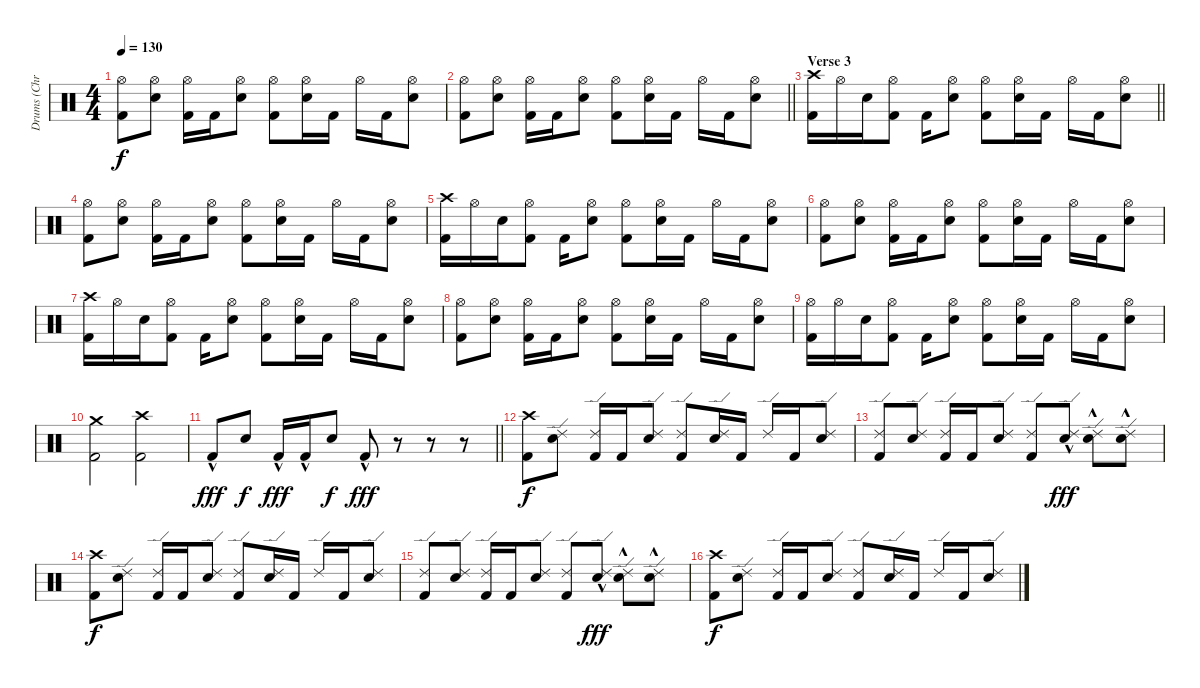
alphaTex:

\track ("Drums (Chris Greer)" "Drums (Chr") {instrument percussion}
\staff {score}
\articulation defaults
\ts (4 4)
\tempo 130
\clef neutral
\ks c
("Hi-Hat (open)" "Kick (hit) 2").8{dy f} ("Hi-Hat (open)" "Electric Snare (hit)").8 ("Hi-Hat (open)" "Kick (hit) 2").16 "Kick (hit) 2".16 ("Hi-Hat (open)" "Electric Snare (hit)").8 ("Hi-Hat (open)" "Kick (hit) 2").8 ("Hi-Hat (open)" "Electric Snare (hit)").16 "Kick (hit) 2".16 "Hi-Hat (open)".16 "Kick (hit) 2".16 ("Hi-Hat (open)" "Electric Snare (hit)").8 |
\barLineRight lightlight
("Hi-Hat (open)" "Kick (hit) 2").8 ("Hi-Hat (open)" "Electric Snare (hit)").8 ("Hi-Hat (open)" "Kick (hit) 2").16 "Kick (hit) 2".16 ("Hi-Hat (open)" "Electric Snare (hit)").8 ("Hi-Hat (open)" "Kick (hit) 2").8 ("Hi-Hat (open)" "Electric Snare (hit)").16 "Kick (hit) 2".16 "Hi-Hat (open)".16 "Kick (hit) 2".16 ("Hi-Hat (open)" "Electric Snare (hit)").8 |
\section ("" "Verse 3")
\barLineRight lightlight
("Crash high (hit)" "Kick (hit) 2").16 "Hi-Hat (open)".16 "Electric Snare (hit)".16 ("Hi-Hat (open)" "Kick (hit) 2").8 "Kick (hit) 2".16 ("Hi-Hat (open)" "Electric Snare (hit)").8 ("Hi-Hat (open)" "Kick (hit) 2").8 ("Hi-Hat (open)" "Electric Snare (hit)").16 "Kick (hit) 2".16 "Hi-Hat (open)".16 "Kick (hit) 2".16 ("Hi-Hat (open)" "Electric Snare (hit)").8 |
("Hi-Hat (open)" "Kick (hit) 2").8 ("Hi-Hat (open)" "Electric Snare (hit)").8 ("Hi-Hat (open)" "Kick (hit) 2").16 "Kick (hit) 2".16 ("Hi-Hat (open)" "Electric Snare (hit)").8 ("Hi-Hat (open)" "Kick (hit) 2").8 ("Hi-Hat (open)" "Electric Snare (hit)").16 "Kick (hit) 2".16 "Hi-Hat (open)".16 "Kick (hit) 2".16 ("Hi-Hat (open)" "Electric Snare (hit)").8 |
("Crash high (hit)" "Kick (hit) 2").16 "Hi-Hat (open)".16 "Electric Snare (hit)".16 ("Hi-Hat (open)" "Kick (hit) 2").8 "Kick (hit) 2".16 ("Hi-Hat (open)" "Electric Snare (hit)").8 ("Hi-Hat (open)" "Kick (hit) 2").8 ("Hi-Hat (open)" "Electric Snare (hit)").16 "Kick (hit) 2".16 "Hi-Hat (open)".16 "Kick (hit) 2".16 ("Hi-Hat (open)" "Electric Snare (hit)").8 |
("Hi-Hat (open)" "Kick (hit) 2").8 ("Hi-Hat (open)" "Electric Snare (hit)").8 ("Hi-Hat (open)" "Kick (hit) 2").16 "Kick (hit) 2".16 ("Hi-Hat (open)" "Electric Snare (hit)").8 ("Hi-Hat (open)" "Kick (hit) 2").8 ("Hi-Hat (open)" "Electric Snare (hit)").16 "Kick (hit) 2".16 "Hi-Hat (open)".16 "Kick (hit) 2".16 ("Hi-Hat (open)" "Electric Snare (hit)").8 |
("Crash high (hit)" "Kick (hit) 2").16 "Hi-Hat (open)".16 "Electric Snare (hit)".16 ("Hi-Hat (open)" "Kick (hit) 2").8 "Kick (hit) 2".16 ("Hi-Hat (open)" "Electric Snare (hit)").8 ("Hi-Hat (open)" "Kick (hit) 2").8 ("Hi-Hat (open)" "Electric Snare (hit)").16 "Kick (hit) 2".16 "Hi-Hat (open)".16 "Kick (hit) 2".16 ("Hi-Hat (open)" "Electric Snare (hit)").8 |
("Hi-Hat (open)" "Kick (hit) 2").8 ("Hi-Hat (open)" "Electric Snare (hit)").8 ("Hi-Hat (open)" "Kick (hit) 2").16 "Kick (hit) 2".16 ("Hi-Hat (open)" "Electric Snare (hit)").8 ("Hi-Hat (open)" "Kick (hit) 2").8 ("Hi-Hat (open)" "Electric Snare (hit)").16 "Kick (hit) 2".16 "Hi-Hat (open)".16 "Kick (hit) 2".16 ("Hi-Hat (open)" "Electric Snare (hit)").8 |
("Hi-Hat (open)" "Kick (hit) 2").16 "Hi-Hat (open)".16 "Electric Snare (hit)".16 ("Hi-Hat (open)" "Kick (hit) 2").8 "Kick (hit) 2".16 ("Hi-Hat (open)" "Electric Snare (hit)").8 ("Hi-Hat (open)" "Kick (hit) 2").8 ("Hi-Hat (open)" "Electric Snare (hit)").16 "Kick (hit) 2".16 "Hi-Hat (open)".16 "Kick (hit) 2".16 ("Hi-Hat (open)" "Electric Snare (hit)").8 |
("Crash medium (hit)" "Kick (hit) 2").2 ("Crash high (hit)" "Kick (hit) 2").2 |
\barLineRight lightlight "Kick (hit) 2"{hac}.8{dy fff} "Electric Snare (hit)".8{dy f} "Kick (hit) 2"{hac}.16{dy fff} "Kick (hit) 2"{hac}.16 "Electric Snare (hit)".8{dy f} "Kick (hit) 2"{hac}.8{dy fff}
r.8 r.8 r.8 |
("Crash high (hit)" "Kick (hit) 2").8{dy f} ("Ride (edge) 2" "Electric Snare (hit)").8 ("Ride (edge) 2" "Kick (hit) 2").16 "Kick (hit) 2".16 ("Ride (edge) 2" "Electric Snare (hit)").8 ("Ride (edge) 2" "Kick (hit) 2").8 ("Ride (edge) 2" "Electric Snare (hit)").16 "Kick (hit) 2".16 "Ride (edge) 2".16 "Kick (hit) 2".16 ("Ride (edge) 2" "Electric Snare (hit)").8 |
("Ride (edge) 2" "Kick (hit) 2").8 ("Ride (edge) 2" "Electric Snare (hit)").8 ("Ride (edge) 2" "Kick (hit) 2").16 "Kick (hit) 2".16 ("Ride (edge) 2" "Electric Snare (hit)").8 ("Ride (edge) 2" "Kick (hit) 2").8 ("Ride (edge) 2" "Electric Snare (hit)"{hac}).8{dy fff} ("Ride (edge) 2" "Electric Snare (hit)"{hac}).8 ("Ride (edge) 2" "Electric Snare (hit)"{hac}).8 |
("Crash high (hit)" "Kick (hit) 2").8{dy f} ("Ride (edge) 2" "Electric Snare (hit)").8 ("Ride (edge) 2" "Kick (hit) 2").16 "Kick (hit) 2".16 ("Ride (edge) 2" "Electric Snare (hit)").8 ("Ride (edge) 2" "Kick (hit) 2").8 ("Ride (edge) 2" "Electric Snare (hit)").16 "Kick (hit) 2".16 "Ride (edge) 2".16 "Kick (hit) 2".16 ("Ride (edge) 2" "Electric Snare (hit)").8 |
("Ride (edge) 2" "Kick (hit) 2").8 ("Ride (edge) 2" "Electric Snare (hit)").8 ("Ride (edge) 2" "Kick (hit) 2").16 "Kick (hit) 2".16 ("Ride (edge) 2" "Electric Snare (hit)").8 ("Ride (edge) 2" "Kick (hit) 2").8 ("Ride (edge) 2" "Electric Snare (hit)"{hac}).8{dy fff} ("Ride (edge) 2" "Electric Snare (hit)"{hac}).8 ("Ride (edge) 2" "Electric Snare (hit)"{hac}).8 |
("Crash high (hit)" "Kick (hit) 2").8{dy f} ("Ride (edge) 2" "Electric Snare (hit)").8 ("Ride (edge) 2" "Kick (hit) 2").16 "Kick (hit) 2".16 ("Ride (edge) 2" "Electric Snare (hit)").8 ("Ride (edge) 2" "Kick (hit) 2").8 ("Ride (edge) 2" "Electric Snare (hit)").16 "Kick (hit) 2".16 "Ride (edge) 2".16 "Kick (hit) 2".16 ("Ride (edge) 2" "Electric Snare (hit)").8
